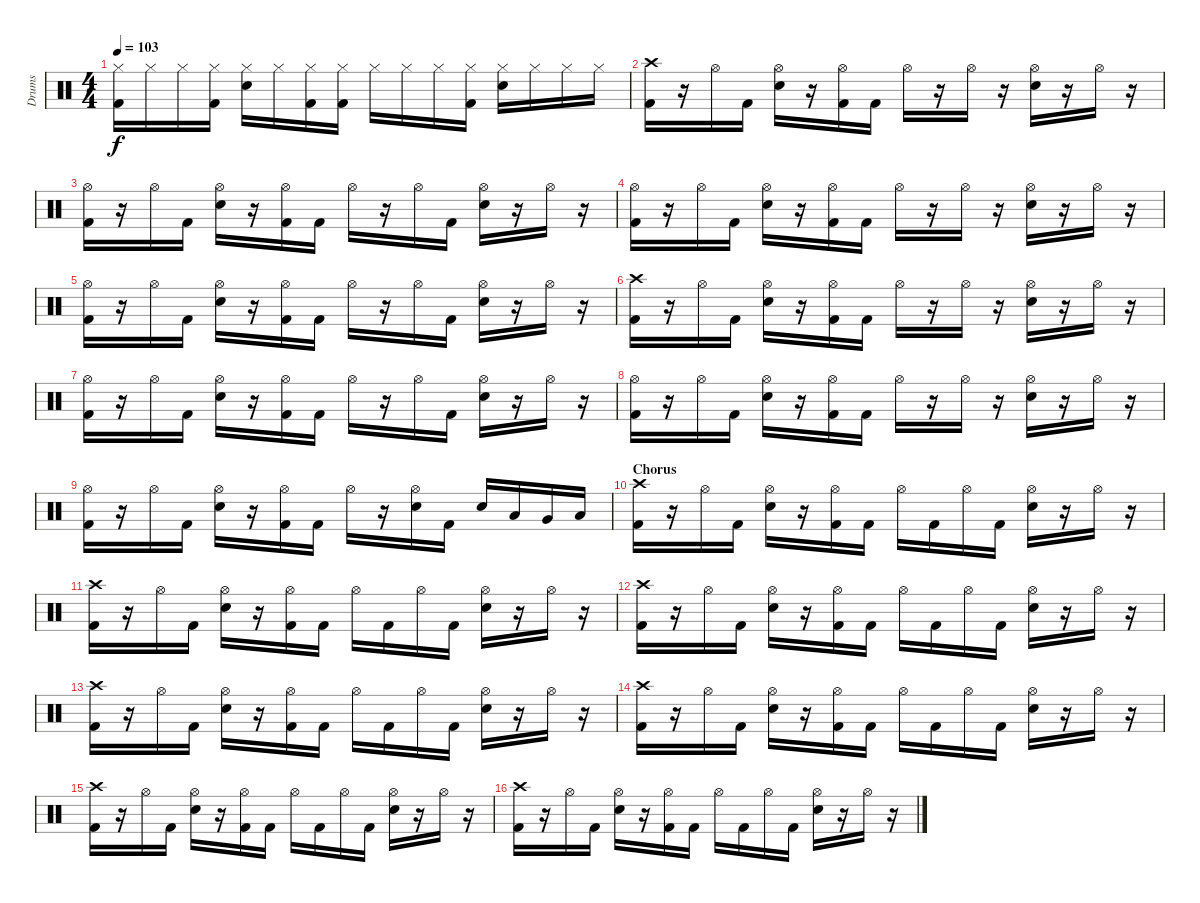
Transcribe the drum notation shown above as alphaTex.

\track ("Drums" "Drums") {instrument percussion}
\staff {score}
\articulation defaults
\ts (4 4)
\tempo 103
\clef neutral
\ks c
("Hi-Hat (closed)" "Kick (hit) 2").16{dy f} "Hi-Hat (closed)".16 "Hi-Hat (closed)".16 ("Hi-Hat (closed)" "Kick (hit) 2").16 ("Hi-Hat (closed)" "Electric Snare (hit)").16 "Hi-Hat (closed)".16 ("Hi-Hat (closed)" "Kick (hit) 2").16 ("Hi-Hat (closed)" "Kick (hit) 2").16 "Hi-Hat (closed)".16 "Hi-Hat (closed)".16 "Hi-Hat (closed)".16 ("Hi-Hat (closed)" "Kick (hit) 2").16 ("Hi-Hat (closed)" "Electric Snare (hit)").16 "Hi-Hat (closed)".16 "Hi-Hat (closed)".16 "Hi-Hat (closed)".16 |
("Crash high (hit)" "Kick (hit) 2").16 r.16 "Hi-Hat (open)".16 "Kick (hit) 2".16 ("Hi-Hat (open)" "Electric Snare (hit)").16 r.16 ("Hi-Hat (open)" "Kick (hit) 2").16 "Kick (hit) 2".16 "Hi-Hat (open)".16 r.16 "Hi-Hat (open)".16 r.16 ("Hi-Hat (open)" "Electric Snare (hit)").16 r.16 "Hi-Hat (open)".16 r.16 |
("Hi-Hat (open)" "Kick (hit) 2").16 r.16 "Hi-Hat (open)".16 "Kick (hit) 2".16 ("Hi-Hat (open)" "Electric Snare (hit)").16 r.16 ("Hi-Hat (open)" "Kick (hit) 2").16 "Kick (hit) 2".16 "Hi-Hat (open)".16 r.16 "Hi-Hat (open)".16 "Kick (hit) 2".16 ("Hi-Hat (open)" "Electric Snare (hit)").16 r.16 "Hi-Hat (open)".16 r.16 |
("Hi-Hat (open)" "Kick (hit) 2").16 r.16 "Hi-Hat (open)".16 "Kick (hit) 2".16 ("Hi-Hat (open)" "Electric Snare (hit)").16 r.16 ("Hi-Hat (open)" "Kick (hit) 2").16 "Kick (hit) 2".16 "Hi-Hat (open)".16 r.16 "Hi-Hat (open)".16 r.16 ("Hi-Hat (open)" "Electric Snare (hit)").16 r.16 "Hi-Hat (open)".16 r.16 |
("Hi-Hat (open)" "Kick (hit) 2").16 r.16 "Hi-Hat (open)".16 "Kick (hit) 2".16 ("Hi-Hat (open)" "Electric Snare (hit)").16 r.16 ("Hi-Hat (open)" "Kick (hit) 2").16 "Kick (hit) 2".16 "Hi-Hat (open)".16 r.16 "Hi-Hat (open)".16 "Kick (hit) 2".16 ("Hi-Hat (open)" "Electric Snare (hit)").16 r.16 "Hi-Hat (open)".16 r.16 |
("Crash high (hit)" "Kick (hit) 2").16 r.16 "Hi-Hat (open)".16 "Kick (hit) 2".16 ("Hi-Hat (open)" "Electric Snare (hit)").16 r.16 ("Hi-Hat (open)" "Kick (hit) 2").16 "Kick (hit) 2".16 "Hi-Hat (open)".16 r.16 "Hi-Hat (open)".16 r.16 ("Hi-Hat (open)" "Electric Snare (hit)").16 r.16 "Hi-Hat (open)".16 r.16 |
("Hi-Hat (open)" "Kick (hit) 2").16 r.16 "Hi-Hat (open)".16 "Kick (hit) 2".16 ("Hi-Hat (open)" "Electric Snare (hit)").16 r.16 ("Hi-Hat (open)" "Kick (hit) 2").16 "Kick (hit) 2".16 "Hi-Hat (open)".16 r.16 "Hi-Hat (open)".16 "Kick (hit) 2".16 ("Hi-Hat (open)" "Electric Snare (hit)").16 r.16 "Hi-Hat (open)".16 r.16 |
("Hi-Hat (open)" "Kick (hit) 2").16 r.16 "Hi-Hat (open)".16 "Kick (hit) 2".16 ("Hi-Hat (open)" "Electric Snare (hit)").16 r.16 ("Hi-Hat (open)" "Kick (hit) 2").16 "Kick (hit) 2".16 "Hi-Hat (open)".16 r.16 "Hi-Hat (open)".16 r.16 ("Hi-Hat (open)" "Electric Snare (hit)").16 r.16 "Hi-Hat (open)".16 r.16 |
("Hi-Hat (open)" "Kick (hit) 2").16 r.16 "Hi-Hat (open)".16 "Kick (hit) 2".16 ("Hi-Hat (open)" "Electric Snare (hit)").16 r.16 ("Hi-Hat (open)" "Kick (hit) 2").16 "Kick (hit) 2".16 "Hi-Hat (open)".16 r.16 ("Hi-Hat (open)" "Electric Snare (hit)").16 "Kick (hit) 2".16 "Electric Snare (hit)".16 "Low Tom (hit)".16 "Very Low Tom (hit)".16 "Low Floor Tom (hit)".16 |
\section ("" "Chorus")
("Crash high (hit)" "Kick (hit) 2").16 r.16 "Hi-Hat (open)".16 "Kick (hit) 2".16 ("Hi-Hat (open)" "Electric Snare (hit)").16 r.16 ("Hi-Hat (open)" "Kick (hit) 2").16 "Kick (hit) 2".16 "Hi-Hat (open)".16 "Kick (hit) 2".16 "Hi-Hat (open)".16 "Kick (hit) 2".16 ("Hi-Hat (open)" "Electric Snare (hit)").16 r.16 "Hi-Hat (open)".16 r.16 |
("Crash high (hit)" "Kick (hit) 2").16 r.16 "Hi-Hat (open)".16 "Kick (hit) 2".16 ("Hi-Hat (open)" "Electric Snare (hit)").16 r.16 ("Hi-Hat (open)" "Kick (hit) 2").16 "Kick (hit) 2".16 "Hi-Hat (open)".16 "Kick (hit) 2".16 "Hi-Hat (open)".16 "Kick (hit) 2".16 ("Hi-Hat (open)" "Electric Snare (hit)").16 r.16 "Hi-Hat (open)".16 r.16 |
("Crash high (hit)" "Kick (hit) 2").16 r.16 "Hi-Hat (open)".16 "Kick (hit) 2".16 ("Hi-Hat (open)" "Electric Snare (hit)").16 r.16 ("Hi-Hat (open)" "Kick (hit) 2").16 "Kick (hit) 2".16 "Hi-Hat (open)".16 "Kick (hit) 2".16 "Hi-Hat (open)".16 "Kick (hit) 2".16 ("Hi-Hat (open)" "Electric Snare (hit)").16 r.16 "Hi-Hat (open)".16 r.16 |
("Crash high (hit)" "Kick (hit) 2").16 r.16 "Hi-Hat (open)".16 "Kick (hit) 2".16 ("Hi-Hat (open)" "Electric Snare (hit)").16 r.16 ("Hi-Hat (open)" "Kick (hit) 2").16 "Kick (hit) 2".16 "Hi-Hat (open)".16 "Kick (hit) 2".16 "Hi-Hat (open)".16 "Kick (hit) 2".16 ("Hi-Hat (open)" "Electric Snare (hit)").16 r.16 "Hi-Hat (open)".16 r.16 |
("Crash high (hit)" "Kick (hit) 2").16 r.16 "Hi-Hat (open)".16 "Kick (hit) 2".16 ("Hi-Hat (open)" "Electric Snare (hit)").16 r.16 ("Hi-Hat (open)" "Kick (hit) 2").16 "Kick (hit) 2".16 "Hi-Hat (open)".16 "Kick (hit) 2".16 "Hi-Hat (open)".16 "Kick (hit) 2".16 ("Hi-Hat (open)" "Electric Snare (hit)").16 r.16 "Hi-Hat (open)".16 r.16 |
("Crash high (hit)" "Kick (hit) 2").16 r.16 "Hi-Hat (open)".16 "Kick (hit) 2".16 ("Hi-Hat (open)" "Electric Snare (hit)").16 r.16 ("Hi-Hat (open)" "Kick (hit) 2").16 "Kick (hit) 2".16 "Hi-Hat (open)".16 "Kick (hit) 2".16 "Hi-Hat (open)".16 "Kick (hit) 2".16 ("Hi-Hat (open)" "Electric Snare (hit)").16 r.16 "Hi-Hat (open)".16 r.16 |
("Crash high (hit)" "Kick (hit) 2").16 r.16 "Hi-Hat (open)".16 "Kick (hit) 2".16 ("Hi-Hat (open)" "Electric Snare (hit)").16 r.16 ("Hi-Hat (open)" "Kick (hit) 2").16 "Kick (hit) 2".16 "Hi-Hat (open)".16 "Kick (hit) 2".16 "Hi-Hat (open)".16 "Kick (hit) 2".16 ("Hi-Hat (open)" "Electric Snare (hit)").16 r.16 "Hi-Hat (open)".16 r.16
